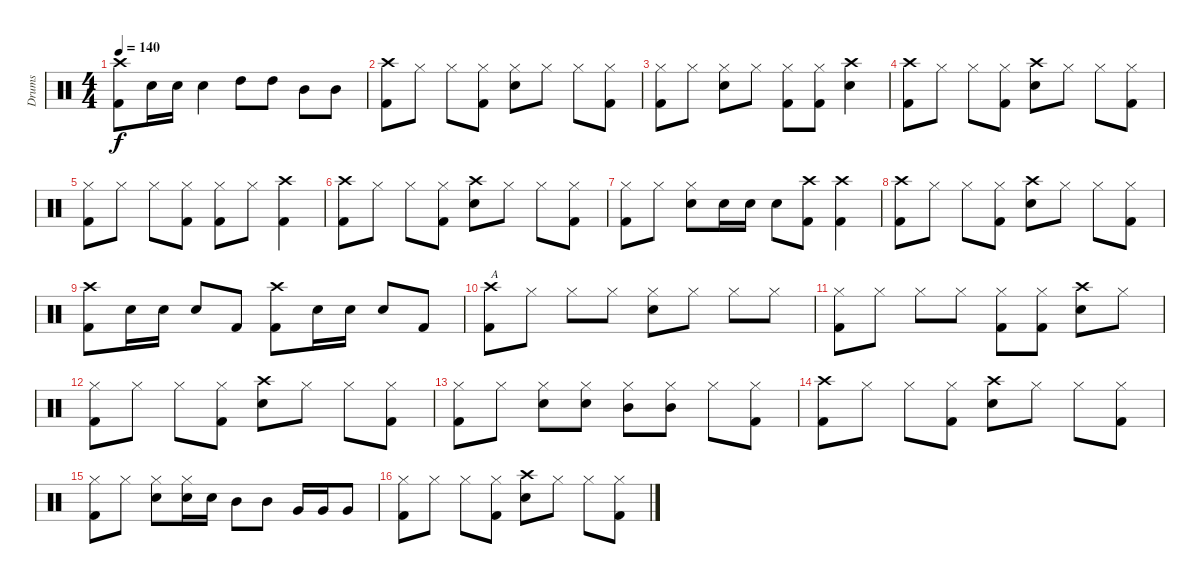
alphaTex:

\track ("Drums" "Drums") {instrument percussion}
\staff {score}
\articulation defaults
\ts (4 4)
\tempo 140
\clef neutral
\ks c
("Crash high (hit)" "Kick (hit) 2").8{dy f} "Snare (hit) 2".16 "Snare (hit) 2".16 "Snare (hit) 2".4 "High Tom (hit)".8 "High Tom (hit)".8 "Mid Tom (hit)".8 "Mid Tom (hit)".8 |
("Crash high (hit)" "Kick (hit) 2").8 "Hi-Hat (closed)".8 "Hi-Hat (closed)".8 ("Hi-Hat (closed)" "Kick (hit) 2").8 ("Hi-Hat (closed)" "Snare (hit) 2").8 "Hi-Hat (closed)".8 "Hi-Hat (closed)".8 ("Hi-Hat (closed)" "Kick (hit) 2").8 |
("Hi-Hat (closed)" "Kick (hit) 2").8 "Hi-Hat (closed)".8 ("Hi-Hat (closed)" "Snare (hit) 2").8 "Hi-Hat (closed)".8 ("Hi-Hat (closed)" "Kick (hit) 2").8 ("Hi-Hat (closed)" "Kick (hit) 2").8 ("Crash high (hit)" "Snare (hit) 2").4 |
("Crash high (hit)" "Kick (hit) 2").8 "Hi-Hat (closed)".8 "Hi-Hat (closed)".8 ("Hi-Hat (closed)" "Kick (hit) 2").8 ("Crash high (hit)" "Snare (hit) 2").8 "Hi-Hat (closed)".8 "Hi-Hat (closed)".8 ("Hi-Hat (closed)" "Kick (hit) 2").8 |
("Hi-Hat (closed)" "Kick (hit) 2").8 "Hi-Hat (closed)".8 "Hi-Hat (closed)".8 ("Hi-Hat (closed)" "Kick (hit) 2").8 ("Hi-Hat (closed)" "Kick (hit) 2").8 "Hi-Hat (closed)".8 ("Crash high (hit)" "Kick (hit) 2").4 |
("Crash high (hit)" "Kick (hit) 2").8 "Hi-Hat (closed)".8 "Hi-Hat (closed)".8 ("Hi-Hat (closed)" "Kick (hit) 2").8 ("Crash high (hit)" "Snare (hit) 2").8 "Hi-Hat (closed)".8 "Hi-Hat (closed)".8 ("Hi-Hat (closed)" "Kick (hit) 2").8 |
("Hi-Hat (closed)" "Kick (hit) 2").8 "Hi-Hat (closed)".8 ("Hi-Hat (closed)" "Snare (hit) 2").8 "Snare (hit) 2".16 "Snare (hit) 2".16 "Snare (hit) 2".8 ("Crash high (hit)" "Kick (hit) 2").8 ("Crash high (hit)" "Kick (hit) 2").4 |
("Crash high (hit)" "Kick (hit) 2").8 "Hi-Hat (closed)".8 "Hi-Hat (closed)".8 ("Hi-Hat (closed)" "Kick (hit) 2").8 ("Crash high (hit)" "Snare (hit) 2").8 "Hi-Hat (closed)".8 "Hi-Hat (closed)".8 ("Hi-Hat (closed)" "Kick (hit) 2").8 |
("Crash high (hit)" "Kick (hit) 2").8 "Snare (hit) 2".16 "Snare (hit) 2".16 "Snare (hit) 2".8 "Kick (hit) 2".8 ("Crash high (hit)" "Kick (hit) 2").8 "Snare (hit) 2".16 "Snare (hit) 2".16 "Snare (hit) 2".8 "Kick (hit) 2".8 |
("Crash high (hit)" "Kick (hit) 2").8{txt "A"} "Hi-Hat (closed)".8 "Hi-Hat (closed)".8 "Hi-Hat (closed)".8 ("Hi-Hat (closed)" "Snare (hit) 2").8 "Hi-Hat (closed)".8 "Hi-Hat (closed)".8 "Hi-Hat (closed)".8 |
("Hi-Hat (closed)" "Kick (hit) 2").8 "Hi-Hat (closed)".8 "Hi-Hat (closed)".8 "Hi-Hat (closed)".8 ("Hi-Hat (closed)" "Kick (hit) 2").8 ("Hi-Hat (closed)" "Kick (hit) 2").8 ("Crash high (hit)" "Snare (hit) 2").8 "Hi-Hat (closed)".8 |
("Hi-Hat (closed)" "Kick (hit) 2").8 "Hi-Hat (closed)".8 "Hi-Hat (closed)".8 ("Hi-Hat (closed)" "Kick (hit) 2").8 ("Crash high (hit)" "Snare (hit) 2").8 "Hi-Hat (closed)".8 "Hi-Hat (closed)".8 ("Hi-Hat (closed)" "Kick (hit) 2").8 |
("Hi-Hat (closed)" "Kick (hit) 2").8 "Hi-Hat (closed)".8 ("Hi-Hat (closed)" "Snare (hit) 2").8 ("Hi-Hat (closed)" "Snare (hit) 2").8 ("Hi-Hat (closed)" "Mid Tom (hit)").8 ("Hi-Hat (closed)" "Mid Tom (hit)").8 "Hi-Hat (closed)".8 ("Hi-Hat (closed)" "Kick (hit) 2").8 |
("Crash high (hit)" "Kick (hit) 2").8 "Hi-Hat (closed)".8 "Hi-Hat (closed)".8 ("Hi-Hat (closed)" "Kick (hit) 2").8 ("Crash high (hit)" "Snare (hit) 2").8 "Hi-Hat (closed)".8 "Hi-Hat (closed)".8 ("Hi-Hat (closed)" "Kick (hit) 2").8 |
("Hi-Hat (closed)" "Kick (hit) 2").8 "Hi-Hat (closed)".8 ("Hi-Hat (closed)" "Snare (hit) 2").8 ("Hi-Hat (closed)" "Snare (hit) 2").16 "Snare (hit) 2".16 "Mid Tom (hit)".8 "Mid Tom (hit)".8 "Very Low Tom (hit)".16 "Very Low Tom (hit)".16 "Very Low Tom (hit)".8 |
("Hi-Hat (closed)" "Kick (hit) 2").8 "Hi-Hat (closed)".8 "Hi-Hat (closed)".8 ("Hi-Hat (closed)" "Kick (hit) 2").8 ("Crash high (hit)" "Snare (hit) 2").8 "Hi-Hat (closed)".8 "Hi-Hat (closed)".8 ("Hi-Hat (closed)" "Kick (hit) 2").8
